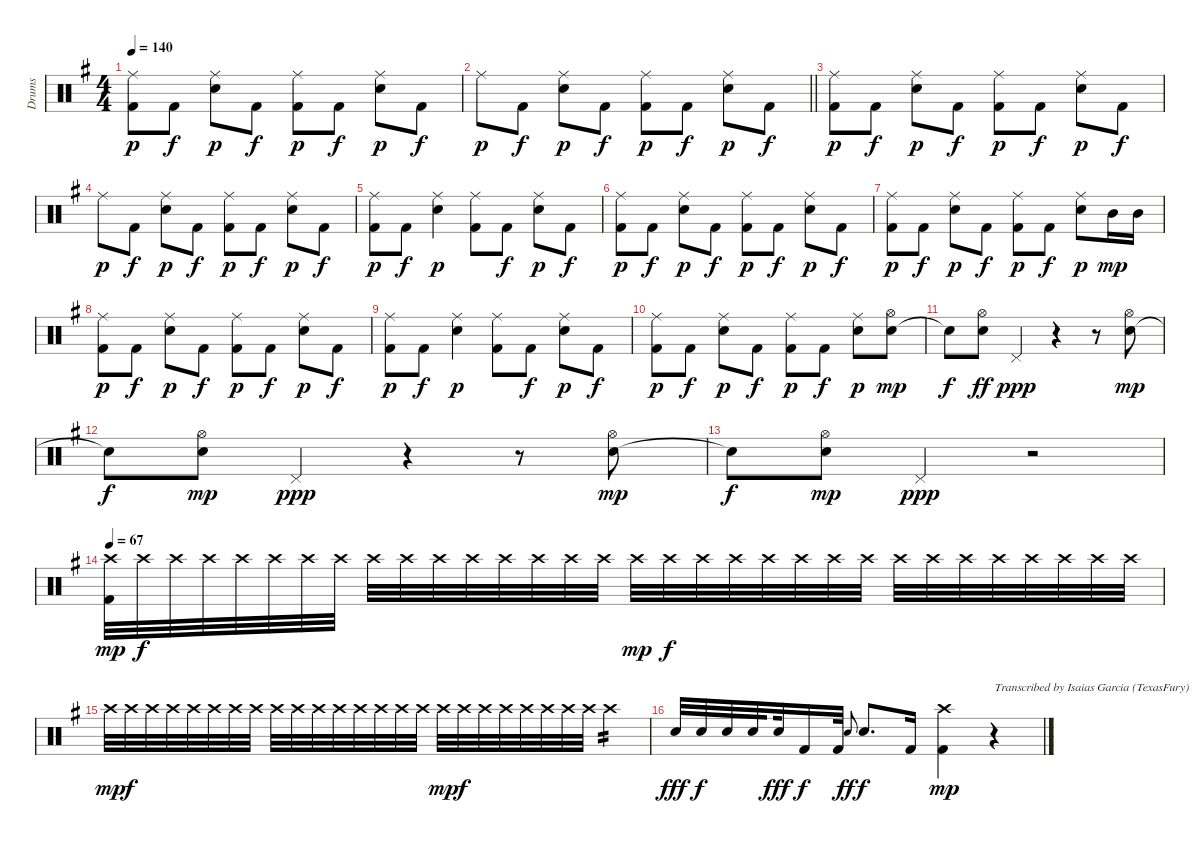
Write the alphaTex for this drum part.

\track ("Drums" "Drums") {instrument percussion}
\staff {score}
\articulation defaults
\ts (4 4)
\tempo 140
\clef neutral
\ks g
("Kick (hit) 2" "Ride (middle)").8{dy p} "Kick (hit) 2".8{dy f} ("Electric Snare (hit)" "Ride (middle)").8{dy p} "Kick (hit) 2".8{dy f} ("Kick (hit) 2" "Ride (middle)").8{dy p} "Kick (hit) 2".8{dy f} ("Electric Snare (hit)" "Ride (middle)").8{dy p} "Kick (hit) 2".8{dy f} |
\barLineRight lightlight "Ride (middle)".8{dy p} "Kick (hit) 2".8{dy f}
("Electric Snare (hit)" "Ride (middle)").8{dy p} "Kick (hit) 2".8{dy f} ("Kick (hit) 2" "Ride (middle)").8{dy p} "Kick (hit) 2".8{dy f} ("Electric Snare (hit)" "Ride (middle)").8{dy p} "Kick (hit) 2".8{dy f} |
("Kick (hit) 2" "Ride (middle)").8{dy p} "Kick (hit) 2".8{dy f} ("Electric Snare (hit)" "Ride (middle)").8{dy p} "Kick (hit) 2".8{dy f} ("Kick (hit) 2" "Ride (middle)").8{dy p} "Kick (hit) 2".8{dy f} ("Electric Snare (hit)" "Ride (middle)").8{dy p} "Kick (hit) 2".8{dy f} |
"Ride (middle)".8{dy p} "Kick (hit) 2".8{dy f} ("Electric Snare (hit)" "Ride (middle)").8{dy p} "Kick (hit) 2".8{dy f} ("Kick (hit) 2" "Ride (middle)").8{dy p} "Kick (hit) 2".8{dy f} ("Electric Snare (hit)" "Ride (middle)").8{dy p} "Kick (hit) 2".8{dy f} |
("Kick (hit) 2" "Ride (middle)").8{dy p} "Kick (hit) 2".8{dy f} ("Electric Snare (hit)" "Ride (middle)").4{dy p} ("Kick (hit) 2" "Ride (middle)").8 "Kick (hit) 2".8{dy f} ("Electric Snare (hit)" "Ride (middle)").8{dy p} "Kick (hit) 2".8{dy f} |
("Kick (hit) 2" "Ride (middle)").8{dy p} "Kick (hit) 2".8{dy f} ("Electric Snare (hit)" "Ride (middle)").8{dy p} "Kick (hit) 2".8{dy f} ("Kick (hit) 2" "Ride (middle)").8{dy p} "Kick (hit) 2".8{dy f} ("Electric Snare (hit)" "Ride (middle)").8{dy p} "Kick (hit) 2".8{dy f} |
("Kick (hit) 2" "Ride (middle)").8{dy p} "Kick (hit) 2".8{dy f} ("Electric Snare (hit)" "Ride (middle)").8{dy p} "Kick (hit) 2".8{dy f} ("Kick (hit) 2" "Ride (middle)").8{dy p} "Kick (hit) 2".8{dy f} ("Electric Snare (hit)" "Ride (middle)").8{dy p} "Mid Tom (hit)".16{dy mp} "Mid Tom (hit)".16 |
("Kick (hit) 2" "Ride (middle)").8{dy p} "Kick (hit) 2".8{dy f} ("Electric Snare (hit)" "Ride (middle)").8{dy p} "Kick (hit) 2".8{dy f} ("Kick (hit) 2" "Ride (middle)").8{dy p} "Kick (hit) 2".8{dy f} ("Electric Snare (hit)" "Ride (middle)").8{dy p} "Kick (hit) 2".8{dy f} |
("Kick (hit) 2" "Ride (middle)").8{dy p} "Kick (hit) 2".8{dy f} ("Electric Snare (hit)" "Ride (middle)").4{dy p} ("Kick (hit) 2" "Ride (middle)").8 "Kick (hit) 2".8{dy f} ("Electric Snare (hit)" "Ride (middle)").8{dy p} "Kick (hit) 2".8{dy f} |
("Kick (hit) 2" "Ride (middle)").8{dy p} "Kick (hit) 2".8{dy f} ("Electric Snare (hit)" "Ride (middle)").8{dy p} "Kick (hit) 2".8{dy f} ("Kick (hit) 2" "Ride (middle)").8{dy p} "Kick (hit) 2".8{dy f} ("Electric Snare (hit)" "Ride (middle)").8{dy p} ("Electric Snare (hit)" "Hi-Hat (open)").8{dy mp} |
"Electric Snare (hit)"{t}.8{dy f} ("Electric Snare (hit)" "Hi-Hat (open)").8{dy ff} "Pedal Hi-Hat (hit)".4{dy ppp} r.4 r.8 ("Electric Snare (hit)" "Hi-Hat (open)").8{dy mp} |
"Electric Snare (hit)"{t}.8{dy f} ("Electric Snare (hit)" "Hi-Hat (open)").8{dy mp} "Pedal Hi-Hat (hit)".4{dy ppp} r.4 r.8 ("Electric Snare (hit)" "Hi-Hat (open)").8{dy mp} |
"Electric Snare (hit)"{t}.8{dy f} ("Electric Snare (hit)" "Hi-Hat (open)").8{dy mp} "Pedal Hi-Hat (hit)".4{dy ppp} r.2 |
\tempo 67
("Kick (hit) 2" "Crash high (hit)").32{dy mp} "Crash high (hit)".32{dy f} "Crash high (hit)".32 "Crash high (hit)".32 "Crash high (hit)".32 "Crash high (hit)".32 "Crash high (hit)".32 "Crash high (hit)".32 "Crash high (hit)".32 "Crash high (hit)".32 "Crash high (hit)".32 "Crash high (hit)".32 "Crash high (hit)".32 "Crash high (hit)".32 "Crash high (hit)".32 "Crash high (hit)".32 "Crash high (hit)".32{dy mp} "Crash high (hit)".32{dy f} "Crash high (hit)".32 "Crash high (hit)".32 "Crash high (hit)".32 "Crash high (hit)".32 "Crash high (hit)".32 "Crash high (hit)".32 "Crash high (hit)".32 "Crash high (hit)".32 "Crash high (hit)".32 "Crash high (hit)".32 "Crash high (hit)".32 "Crash high (hit)".32 "Crash high (hit)".32 "Crash high (hit)".32 |
"Crash high (hit)".32{dy mp} "Crash high (hit)".32{dy f} "Crash high (hit)".32 "Crash high (hit)".32 "Crash high (hit)".32 "Crash high (hit)".32 "Crash high (hit)".32 "Crash high (hit)".32 "Crash high (hit)".32 "Crash high (hit)".32 "Crash high (hit)".32 "Crash high (hit)".32 "Crash high (hit)".32 "Crash high (hit)".32 "Crash high (hit)".32 "Crash high (hit)".32 "Crash high (hit)".32{dy mp} "Crash high (hit)".32{dy f} "Crash high (hit)".32 "Crash high (hit)".32 "Crash high (hit)".32 "Crash high (hit)".32 "Crash high (hit)".32 "Crash high (hit)".32 "Crash high (hit)".4{tp 2} |
"Electric Snare (hit)".32{dy fff} "Electric Snare (hit)".32{dy f} "Electric Snare (hit)".32 "Electric Snare (hit)".32{beam splitsecondary} "Electric Snare (hit)".32{dy fff} "Kick (hit) 2".16{dy f} "Kick (hit) 2".32 "Electric Snare (hit)".8{gr onbeat dy ff} "Electric Snare (hit)".8{d dy f} "Kick (hit) 2".16 ("Kick (hit) 2" "Crash high (hit)").4{dy mp volume 0} r.4{txt "Transcribed by Isaias Garcia (TexasFury)"}
